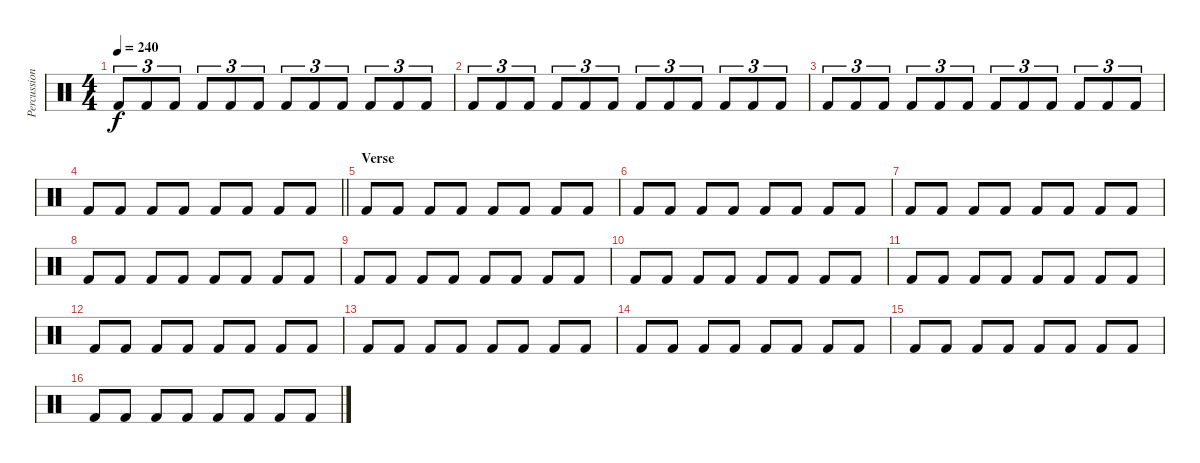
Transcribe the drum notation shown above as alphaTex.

\track ("Percussion" "Percussion") {instrument percussion}
\staff {score}
\articulation defaults
\ts (4 4)
\tempo 240
\clef neutral
\ks c "Kick (hit) 2".8{tu (3 2) dy f} "Kick (hit) 2".8{tu (3 2)} "Kick (hit) 2".8{tu (3 2)} "Kick (hit) 2".8{tu (3 2)} "Kick (hit) 2".8{tu (3 2)} "Kick (hit) 2".8{tu (3 2)} "Kick (hit) 2".8{tu (3 2)} "Kick (hit) 2".8{tu (3 2)} "Kick (hit) 2".8{tu (3 2)} "Kick (hit) 2".8{tu (3 2)} "Kick (hit) 2".8{tu (3 2)} "Kick (hit) 2".8{tu (3 2)}
|
"Kick (hit) 2".8{tu (3 2)} "Kick (hit) 2".8{tu (3 2)} "Kick (hit) 2".8{tu (3 2)} "Kick (hit) 2".8{tu (3 2)} "Kick (hit) 2".8{tu (3 2)} "Kick (hit) 2".8{tu (3 2)} "Kick (hit) 2".8{tu (3 2)} "Kick (hit) 2".8{tu (3 2)} "Kick (hit) 2".8{tu (3 2)} "Kick (hit) 2".8{tu (3 2)} "Kick (hit) 2".8{tu (3 2)} "Kick (hit) 2".8{tu (3 2)} |
"Kick (hit) 2".8{tu (3 2)} "Kick (hit) 2".8{tu (3 2)} "Kick (hit) 2".8{tu (3 2)} "Kick (hit) 2".8{tu (3 2)} "Kick (hit) 2".8{tu (3 2)} "Kick (hit) 2".8{tu (3 2)} "Kick (hit) 2".8{tu (3 2)} "Kick (hit) 2".8{tu (3 2)} "Kick (hit) 2".8{tu (3 2)} "Kick (hit) 2".8{tu (3 2)} "Kick (hit) 2".8{tu (3 2)} "Kick (hit) 2".8{tu (3 2)} |
\barLineRight lightlight "Kick (hit) 2".8 "Kick (hit) 2".8 "Kick (hit) 2".8 "Kick (hit) 2".8 "Kick (hit) 2".8 "Kick (hit) 2".8 "Kick (hit) 2".8 "Kick (hit) 2".8
|
\section ("" "Verse ")
"Kick (hit) 2".8 "Kick (hit) 2".8 "Kick (hit) 2".8 "Kick (hit) 2".8 "Kick (hit) 2".8 "Kick (hit) 2".8 "Kick (hit) 2".8 "Kick (hit) 2".8 |
"Kick (hit) 2".8 "Kick (hit) 2".8 "Kick (hit) 2".8 "Kick (hit) 2".8 "Kick (hit) 2".8 "Kick (hit) 2".8 "Kick (hit) 2".8 "Kick (hit) 2".8 |
"Kick (hit) 2".8 "Kick (hit) 2".8 "Kick (hit) 2".8 "Kick (hit) 2".8 "Kick (hit) 2".8 "Kick (hit) 2".8 "Kick (hit) 2".8 "Kick (hit) 2".8 |
"Kick (hit) 2".8 "Kick (hit) 2".8 "Kick (hit) 2".8 "Kick (hit) 2".8 "Kick (hit) 2".8 "Kick (hit) 2".8 "Kick (hit) 2".8 "Kick (hit) 2".8 |
"Kick (hit) 2".8 "Kick (hit) 2".8 "Kick (hit) 2".8 "Kick (hit) 2".8 "Kick (hit) 2".8 "Kick (hit) 2".8 "Kick (hit) 2".8 "Kick (hit) 2".8 |
"Kick (hit) 2".8 "Kick (hit) 2".8 "Kick (hit) 2".8 "Kick (hit) 2".8 "Kick (hit) 2".8 "Kick (hit) 2".8 "Kick (hit) 2".8 "Kick (hit) 2".8 |
"Kick (hit) 2".8 "Kick (hit) 2".8 "Kick (hit) 2".8 "Kick (hit) 2".8 "Kick (hit) 2".8 "Kick (hit) 2".8 "Kick (hit) 2".8 "Kick (hit) 2".8 |
"Kick (hit) 2".8 "Kick (hit) 2".8 "Kick (hit) 2".8 "Kick (hit) 2".8 "Kick (hit) 2".8 "Kick (hit) 2".8 "Kick (hit) 2".8 "Kick (hit) 2".8 |
"Kick (hit) 2".8 "Kick (hit) 2".8 "Kick (hit) 2".8 "Kick (hit) 2".8 "Kick (hit) 2".8 "Kick (hit) 2".8 "Kick (hit) 2".8 "Kick (hit) 2".8 |
"Kick (hit) 2".8 "Kick (hit) 2".8 "Kick (hit) 2".8 "Kick (hit) 2".8 "Kick (hit) 2".8 "Kick (hit) 2".8 "Kick (hit) 2".8 "Kick (hit) 2".8 |
"Kick (hit) 2".8 "Kick (hit) 2".8 "Kick (hit) 2".8 "Kick (hit) 2".8 "Kick (hit) 2".8 "Kick (hit) 2".8 "Kick (hit) 2".8 "Kick (hit) 2".8 |
"Kick (hit) 2".8 "Kick (hit) 2".8 "Kick (hit) 2".8 "Kick (hit) 2".8 "Kick (hit) 2".8 "Kick (hit) 2".8 "Kick (hit) 2".8 "Kick (hit) 2".8
